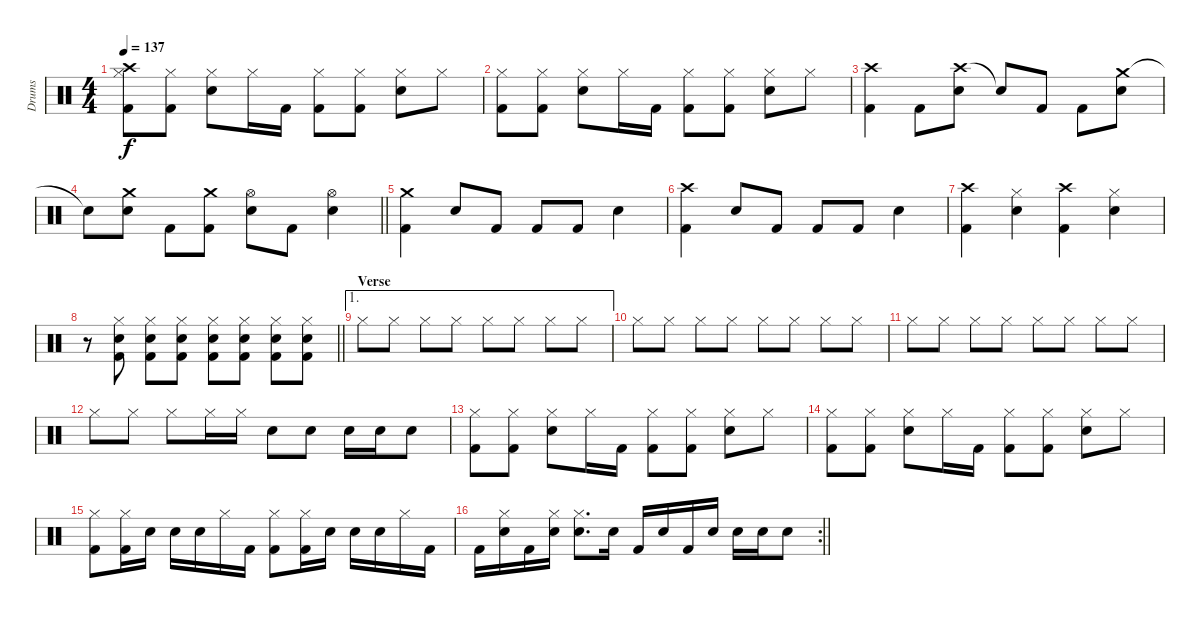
\track ("Drums" "Drums") {instrument percussion}
\staff {score}
\articulation defaults
\ts (4 4)
\tempo 137
\clef neutral
\ks c
("Hi-Hat (closed)" "Crash high (hit)" "Kick (hit) 2").8{dy f} ("Hi-Hat (closed)" "Kick (hit) 2").8 ("Hi-Hat (closed)" "Snare (hit) 2").8 "Hi-Hat (closed)".16 "Kick (hit) 2".16 ("Hi-Hat (closed)" "Kick (hit) 2").8 ("Hi-Hat (closed)" "Kick (hit) 2").8 ("Hi-Hat (closed)" "Snare (hit) 2").8 "Hi-Hat (closed)".8 |
("Hi-Hat (closed)" "Kick (hit) 2").8 ("Hi-Hat (closed)" "Kick (hit) 2").8 ("Hi-Hat (closed)" "Snare (hit) 2").8 "Hi-Hat (closed)".16 "Kick (hit) 2".16 ("Hi-Hat (closed)" "Kick (hit) 2").8 ("Hi-Hat (closed)" "Kick (hit) 2").8 ("Hi-Hat (closed)" "Snare (hit) 2").8 "Hi-Hat (closed)".8 |
("Crash high (hit)" "Kick (hit) 2").4 "Kick (hit) 2".8 ("Crash high (hit)" "Snare (hit) 2").8 "Snare (hit)"{t}.8 "Kick (hit) 2".8 "Kick (hit) 2".8 ("Crash medium (hit)" "Snare (hit) 2").8 |
\barLineRight lightlight "Snare (hit)"{t}.8
("Crash medium (hit)" "Snare (hit) 2").8 "Kick (hit) 2".8 ("Crash medium (hit)" "Kick (hit) 2").8 ("Hi-Hat (open)" "Snare (hit) 2").8 "Kick (hit) 2".8 ("Hi-Hat (open)" "Snare (hit) 2").4 |
("Crash medium (hit)" "Kick (hit) 2").4 "Snare (hit) 2".8 "Kick (hit) 2".8 "Kick (hit) 2".8 "Kick (hit) 2".8 "Snare (hit) 2".4 |
("Crash high (hit)" "Kick (hit) 2").4 "Snare (hit) 2".8 "Kick (hit) 2".8 "Kick (hit) 2".8 "Kick (hit) 2".8 "Snare (hit) 2".4 |
("Crash high (hit)" "Kick (hit) 2").4 ("Hi-Hat (closed)" "Snare (hit) 2").4 ("Crash high (hit)" "Kick (hit) 2").4 ("Hi-Hat (closed)" "Snare (hit) 2").4 |
\barLineRight lightlight
r.8 ("Hi-Hat (closed)" "Snare (hit) 2" "Kick (hit) 2").8 ("Hi-Hat (closed)" "Snare (hit) 2" "Kick (hit) 2").8 ("Hi-Hat (closed)" "Snare (hit) 2" "Kick (hit) 2").8 ("Hi-Hat (closed)" "Snare (hit) 2" "Kick (hit) 2").8 ("Hi-Hat (closed)" "Snare (hit) 2" "Kick (hit) 2").8 ("Hi-Hat (closed)" "Snare (hit) 2" "Kick (hit) 2").8 ("Hi-Hat (closed)" "Snare (hit) 2" "Kick (hit) 2").8 |
\ae 1
\section ("" "Verse")
"Hi-Hat (closed)".8 "Hi-Hat (closed)".8 "Hi-Hat (closed)".8 "Hi-Hat (closed)".8 "Hi-Hat (closed)".8 "Hi-Hat (closed)".8 "Hi-Hat (closed)".8 "Hi-Hat (closed)".8 |
"Hi-Hat (closed)".8 "Hi-Hat (closed)".8 "Hi-Hat (closed)".8 "Hi-Hat (closed)".8 "Hi-Hat (closed)".8 "Hi-Hat (closed)".8 "Hi-Hat (closed)".8 "Hi-Hat (closed)".8 |
"Hi-Hat (closed)".8 "Hi-Hat (closed)".8 "Hi-Hat (closed)".8 "Hi-Hat (closed)".8 "Hi-Hat (closed)".8 "Hi-Hat (closed)".8 "Hi-Hat (closed)".8 "Hi-Hat (closed)".8 |
"Hi-Hat (closed)".8 "Hi-Hat (closed)".8 "Hi-Hat (closed)".8 "Hi-Hat (closed)".16 "Hi-Hat (closed)".16 "Snare (hit) 2".8 "Snare (hit) 2".8 "Snare (hit) 2".16 "Snare (hit) 2".16 "Snare (hit) 2".8 |
("Hi-Hat (closed)" "Kick (hit) 2").8 ("Hi-Hat (closed)" "Kick (hit) 2").8 ("Hi-Hat (closed)" "Snare (hit) 2").8 "Hi-Hat (closed)".16 "Kick (hit) 2".16 ("Hi-Hat (closed)" "Kick (hit) 2").8 ("Hi-Hat (closed)" "Kick (hit) 2").8 ("Hi-Hat (closed)" "Snare (hit) 2").8 "Hi-Hat (closed)".8 |
("Hi-Hat (closed)" "Kick (hit) 2").8 ("Hi-Hat (closed)" "Kick (hit) 2").8 ("Hi-Hat (closed)" "Snare (hit) 2").8 "Hi-Hat (closed)".16 "Kick (hit) 2".16 ("Hi-Hat (closed)" "Kick (hit) 2").8 ("Hi-Hat (closed)" "Kick (hit) 2").8 ("Hi-Hat (closed)" "Snare (hit) 2").8 "Hi-Hat (closed)".8 |
("Hi-Hat (closed)" "Kick (hit) 2").8 ("Hi-Hat (closed)" "Kick (hit) 2").16 "Snare (hit) 2".16 "Snare (hit) 2".16 "Snare (hit) 2".16 "Hi-Hat (closed)".16 "Kick (hit) 2".16 ("Hi-Hat (closed)" "Kick (hit) 2").8 ("Hi-Hat (closed)" "Kick (hit) 2").16 "Snare (hit) 2".16 "Snare (hit) 2".16 "Snare (hit) 2".16 "Hi-Hat (closed)".16 "Kick (hit) 2".16 |
\rc 2
\barLineRight lightlight "Kick (hit) 2".16
("Hi-Hat (closed)" "Snare (hit) 2").16 "Kick (hit) 2".16 ("Hi-Hat (closed)" "Snare (hit) 2").16 ("Hi-Hat (closed)" "Snare (hit) 2").8{d} "Snare (hit) 2".16 "Kick (hit) 2".16 "Snare (hit) 2".16 "Kick (hit) 2".16 "Snare (hit) 2".16 "Snare (hit) 2".16 "Snare (hit) 2".16 "Snare (hit) 2".8
